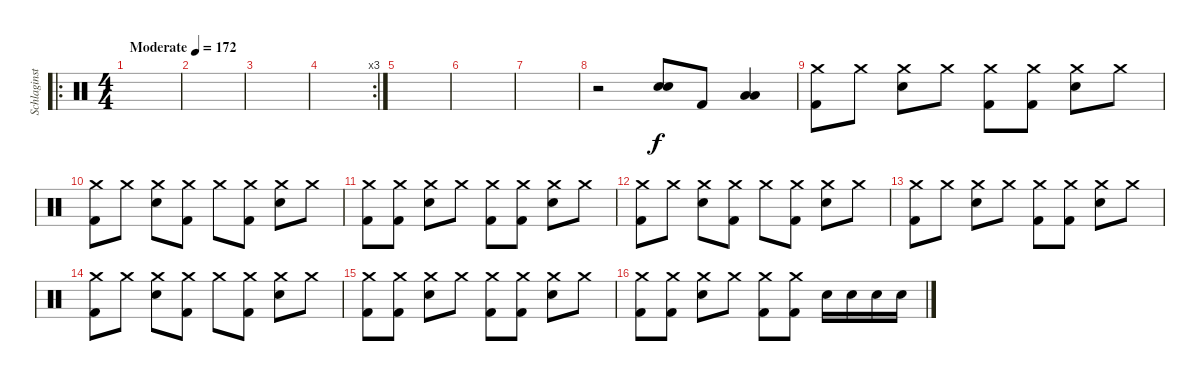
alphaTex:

\track ("Schlaginstrumente - Auswahl" "Schlaginst") {instrument percussion}
\staff {score}
\articulation defaults
\ro
\ts (4 4)
\tempo (172 "Moderate")
\clef neutral
\ks c
|
|
|
\rc 3
|
|
|
|
r.2 ("Snare (hit) 2" "Snare (hit) 2").8{bd 240} "Kick (hit) 2".8 ("Low Floor Tom (hit)" "Low Tom (hit)").4 |
("Crash medium (hit)" "Kick (hit) 2").8 "Crash medium (hit)".8 ("Crash medium (hit)" "Snare (hit) 2").8 "Crash medium (hit)".8 ("Crash medium (hit)" "Kick (hit) 2").8 ("Crash medium (hit)" "Kick (hit) 2").8 ("Crash medium (hit)" "Snare (hit) 2").8 "Crash medium (hit)".8 |
("Crash medium (hit)" "Kick (hit) 2").8 "Crash medium (hit)".8 ("Crash medium (hit)" "Snare (hit) 2").8 ("Crash medium (hit)" "Kick (hit) 2").8 "Crash medium (hit)".8 ("Crash medium (hit)" "Kick (hit) 2").8 ("Crash medium (hit)" "Snare (hit) 2").8 "Crash medium (hit)".8 |
("Crash medium (hit)" "Kick (hit) 2").8 ("Crash medium (hit)" "Kick (hit) 2").8 ("Crash medium (hit)" "Snare (hit) 2").8 "Crash medium (hit)".8 ("Crash medium (hit)" "Kick (hit) 2").8 ("Crash medium (hit)" "Kick (hit) 2").8 ("Crash medium (hit)" "Snare (hit) 2").8 "Crash medium (hit)".8 |
("Crash medium (hit)" "Kick (hit) 2").8 "Crash medium (hit)".8 ("Crash medium (hit)" "Snare (hit) 2").8 ("Crash medium (hit)" "Kick (hit) 2").8 "Crash medium (hit)".8 ("Crash medium (hit)" "Kick (hit) 2").8 ("Crash medium (hit)" "Snare (hit) 2").8 "Crash medium (hit)".8 |
("Crash medium (hit)" "Kick (hit) 2").8 "Crash medium (hit)".8 ("Crash medium (hit)" "Snare (hit) 2").8 "Crash medium (hit)".8 ("Crash medium (hit)" "Kick (hit) 2").8 ("Crash medium (hit)" "Kick (hit) 2").8 ("Crash medium (hit)" "Snare (hit) 2").8 "Crash medium (hit)".8 |
("Crash medium (hit)" "Kick (hit) 2").8 "Crash medium (hit)".8 ("Crash medium (hit)" "Snare (hit) 2").8 ("Crash medium (hit)" "Kick (hit) 2").8 "Crash medium (hit)".8 ("Crash medium (hit)" "Kick (hit) 2").8 ("Crash medium (hit)" "Snare (hit) 2").8 "Crash medium (hit)".8 |
("Crash medium (hit)" "Kick (hit) 2").8 ("Crash medium (hit)" "Kick (hit) 2").8 ("Crash medium (hit)" "Snare (hit) 2").8 "Crash medium (hit)".8 ("Crash medium (hit)" "Kick (hit) 2").8 ("Crash medium (hit)" "Kick (hit) 2").8 ("Crash medium (hit)" "Snare (hit) 2").8 "Crash medium (hit)".8 |
("Crash medium (hit)" "Kick (hit) 2").8 ("Crash medium (hit)" "Kick (hit) 2").8 ("Crash medium (hit)" "Snare (hit) 2").8 "Crash medium (hit)".8 ("Crash medium (hit)" "Kick (hit) 2").8 ("Crash medium (hit)" "Kick (hit) 2").8 "Snare (hit) 2".16 "Snare (hit) 2".16 "Snare (hit) 2".16 "Snare (hit) 2".16
